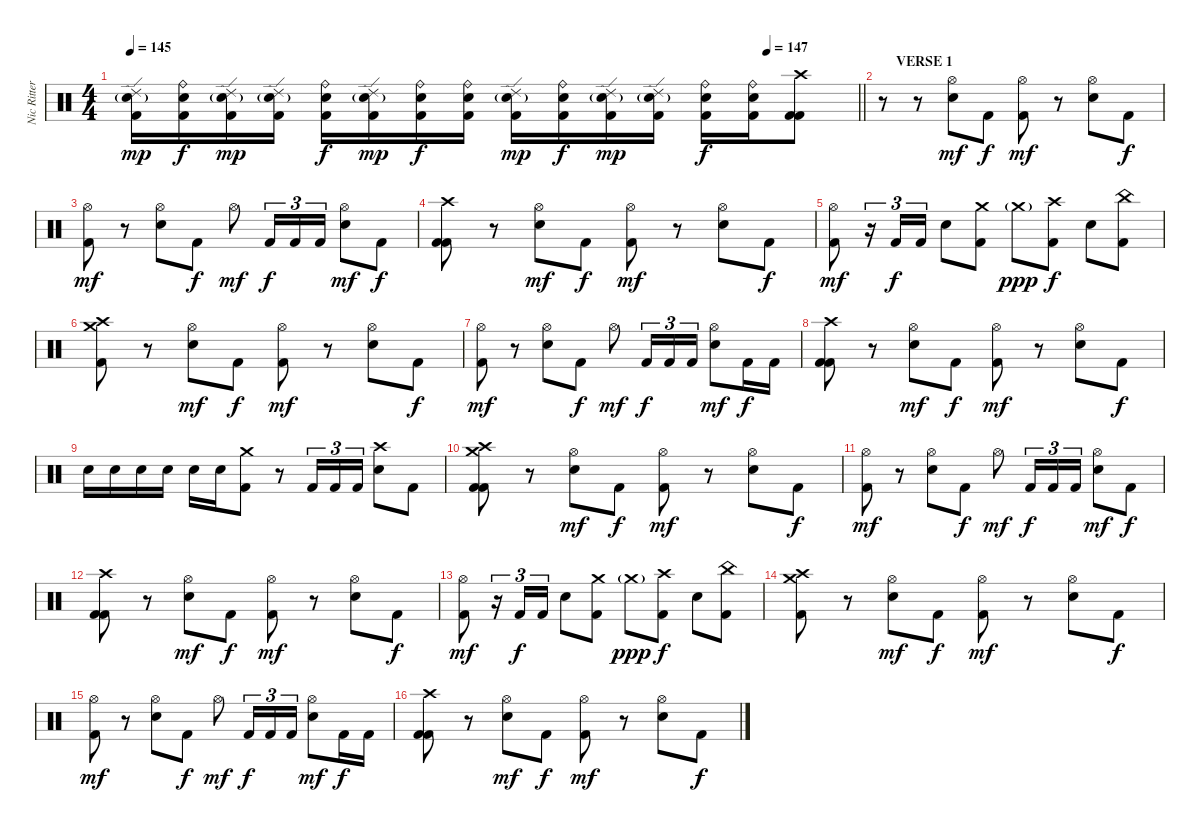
\track ("Nic Ritter" "Nic Ritter") {instrument percussion}
\staff {score}
\articulation defaults
\ts (4 4)
\tempo 145
\tempo (147 0.875)
\clef neutral
\barLineRight lightlight
\ks c
("Ride (edge) 2" "Electric Snare (hit)"{g} "Kick (hit) 2").16{dy mp} ("Ride (bell)" "Electric Snare (hit)" "Kick (hit) 2").16{dy f} ("Ride (edge) 2" "Electric Snare (hit)"{g} "Kick (hit) 2").16{dy mp} ("Ride (edge) 2" "Electric Snare (hit)"{g} "Kick (hit) 2").16 ("Ride (bell)" "Electric Snare (hit)" "Kick (hit) 2").16{dy f} ("Ride (edge) 2" "Electric Snare (hit)"{g} "Kick (hit) 2").16{dy mp} ("Ride (bell)" "Electric Snare (hit)" "Kick (hit) 2").16{dy f} ("Ride (bell)" "Electric Snare (hit)" "Kick (hit) 2").16 ("Ride (edge) 2" "Electric Snare (hit)"{g} "Kick (hit) 2").16{dy mp} ("Ride (bell)" "Electric Snare (hit)" "Kick (hit) 2").16{dy f} ("Ride (edge) 2" "Electric Snare (hit)"{g} "Kick (hit) 2").16{dy mp} ("Ride (edge) 2" "Electric Snare (hit)"{g} "Kick (hit) 2").16 ("Ride (bell)" "Electric Snare (hit)" "Kick (hit) 2").16{dy f} ("Ride (bell)" "Electric Snare (hit)" "Kick (hit) 2").16 ("Crash high (hit)" "Kick (hit) 2" "Kick (hit) 2").8 |
\section ("" "     VERSE 1")
r.8 r.8 ("Hi-Hat (open)" "Electric Snare (hit)").8{dy mf} "Kick (hit) 2".8{dy f} ("Hi-Hat (open)" "Kick (hit) 2").8{dy mf} r.8 ("Hi-Hat (open)" "Electric Snare (hit)").8 "Kick (hit) 2".8{dy f} |
("Hi-Hat (open)" "Kick (hit) 2").8{dy mf} r.8 ("Hi-Hat (open)" "Electric Snare (hit)").8 "Kick (hit) 2".8{dy f} "Hi-Hat (open)".8{dy mf} "Kick (hit) 2".16{tu (3 2) dy f} "Kick (hit) 2".16{tu (3 2)} "Kick (hit) 2".16{tu (3 2)} ("Hi-Hat (open)" "Electric Snare (hit)").8{dy mf} "Kick (hit) 2".8{dy f} |
("Crash high (hit)" "Kick (hit) 2" "Kick (hit) 2").8 r.8 ("Hi-Hat (open)" "Electric Snare (hit)").8{dy mf} "Kick (hit) 2".8{dy f} ("Hi-Hat (open)" "Kick (hit) 2").8{dy mf} r.8 ("Hi-Hat (open)" "Electric Snare (hit)").8 "Kick (hit) 2".8{dy f} |
("Hi-Hat (open)" "Kick (hit) 2").8{dy mf} r.16{tu (3 2)} "Kick (hit) 2".16{tu (3 2) dy f} "Kick (hit) 2".16{tu (3 2)} "Electric Snare (hit)".8 ("Crash medium (hit)" "Kick (hit) 2").8 "Crash medium (hit)"{g}.8{dy ppp} ("Crash high (hit)" "Kick (hit) 2").8{dy f} "Electric Snare (hit)".8 ("China (hit)" "Kick (hit) 2").8 |
("Crash medium (hit)" "Crash high (hit)" "Kick (hit) 2").8 r.8 ("Hi-Hat (open)" "Electric Snare (hit)").8{dy mf} "Kick (hit) 2".8{dy f} ("Hi-Hat (open)" "Kick (hit) 2").8{dy mf} r.8 ("Hi-Hat (open)" "Electric Snare (hit)").8 "Kick (hit) 2".8{dy f} |
("Hi-Hat (open)" "Kick (hit) 2").8{dy mf} r.8 ("Hi-Hat (open)" "Electric Snare (hit)").8 "Kick (hit) 2".8{dy f} "Hi-Hat (open)".8{dy mf} "Kick (hit) 2".16{tu (3 2) dy f} "Kick (hit) 2".16{tu (3 2)} "Kick (hit) 2".16{tu (3 2)} ("Hi-Hat (open)" "Electric Snare (hit)").8{dy mf} "Kick (hit) 2".16{dy f} "Kick (hit) 2".16 |
("Crash high (hit)" "Kick (hit) 2" "Kick (hit) 2").8 r.8 ("Hi-Hat (open)" "Electric Snare (hit)").8{dy mf} "Kick (hit) 2".8{dy f} ("Hi-Hat (open)" "Kick (hit) 2").8{dy mf} r.8 ("Hi-Hat (open)" "Electric Snare (hit)").8 "Kick (hit) 2".8{dy f} |
"Electric Snare (hit)".16 "Electric Snare (hit)".16 "Electric Snare (hit)".16 "Electric Snare (hit)".16 "Electric Snare (hit)".16 "Electric Snare (hit)".16 ("Crash medium (hit)" "Kick (hit) 2").8 r.8 "Kick (hit) 2".16{tu (3 2)} "Kick (hit) 2".16{tu (3 2)} "Kick (hit) 2".16{tu (3 2)} ("Crash high (hit)" "Electric Snare (hit)").8 "Kick (hit) 2".8 |
("Crash medium (hit)" "Crash high (hit)" "Kick (hit) 2" "Kick (hit) 2").8 r.8 ("Hi-Hat (open)" "Electric Snare (hit)").8{dy mf} "Kick (hit) 2".8{dy f} ("Hi-Hat (open)" "Kick (hit) 2").8{dy mf} r.8 ("Hi-Hat (open)" "Electric Snare (hit)").8 "Kick (hit) 2".8{dy f} |
("Hi-Hat (open)" "Kick (hit) 2").8{dy mf} r.8 ("Hi-Hat (open)" "Electric Snare (hit)").8 "Kick (hit) 2".8{dy f} "Hi-Hat (open)".8{dy mf} "Kick (hit) 2".16{tu (3 2) dy f} "Kick (hit) 2".16{tu (3 2)} "Kick (hit) 2".16{tu (3 2)} ("Hi-Hat (open)" "Electric Snare (hit)").8{dy mf} "Kick (hit) 2".8{dy f} |
("Crash high (hit)" "Kick (hit) 2" "Kick (hit) 2").8 r.8 ("Hi-Hat (open)" "Electric Snare (hit)").8{dy mf} "Kick (hit) 2".8{dy f} ("Hi-Hat (open)" "Kick (hit) 2").8{dy mf} r.8 ("Hi-Hat (open)" "Electric Snare (hit)").8 "Kick (hit) 2".8{dy f} |
("Hi-Hat (open)" "Kick (hit) 2").8{dy mf} r.16{tu (3 2)} "Kick (hit) 2".16{tu (3 2) dy f} "Kick (hit) 2".16{tu (3 2)} "Electric Snare (hit)".8 ("Crash medium (hit)" "Kick (hit) 2").8 "Crash medium (hit)"{g}.8{dy ppp} ("Crash high (hit)" "Kick (hit) 2").8{dy f} "Electric Snare (hit)".8 ("China (hit)" "Kick (hit) 2").8 |
("Crash medium (hit)" "Crash high (hit)" "Kick (hit) 2").8 r.8 ("Hi-Hat (open)" "Electric Snare (hit)").8{dy mf} "Kick (hit) 2".8{dy f} ("Hi-Hat (open)" "Kick (hit) 2").8{dy mf} r.8 ("Hi-Hat (open)" "Electric Snare (hit)").8 "Kick (hit) 2".8{dy f} |
("Hi-Hat (open)" "Kick (hit) 2").8{dy mf} r.8 ("Hi-Hat (open)" "Electric Snare (hit)").8 "Kick (hit) 2".8{dy f} "Hi-Hat (open)".8{dy mf} "Kick (hit) 2".16{tu (3 2) dy f} "Kick (hit) 2".16{tu (3 2)} "Kick (hit) 2".16{tu (3 2)} ("Hi-Hat (open)" "Electric Snare (hit)").8{dy mf} "Kick (hit) 2".16{dy f} "Kick (hit) 2".16 |
("Crash high (hit)" "Kick (hit) 2" "Kick (hit) 2").8 r.8 ("Hi-Hat (open)" "Electric Snare (hit)").8{dy mf} "Kick (hit) 2".8{dy f} ("Hi-Hat (open)" "Kick (hit) 2").8{dy mf} r.8 ("Hi-Hat (open)" "Electric Snare (hit)").8 "Kick (hit) 2".8{dy f}
